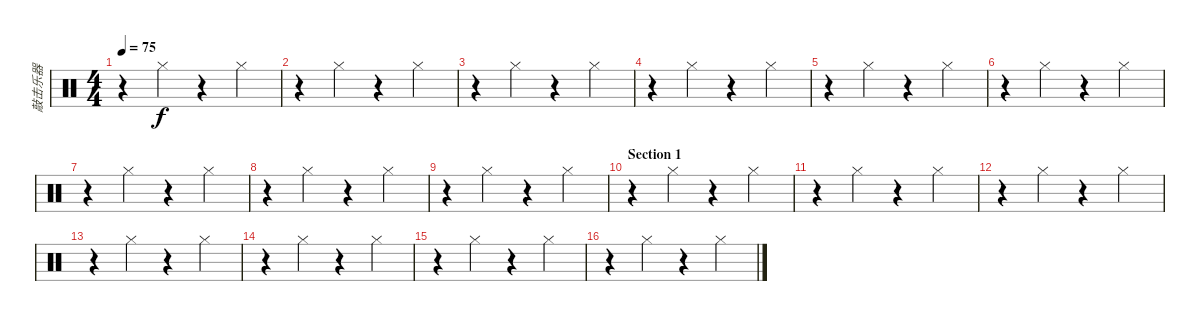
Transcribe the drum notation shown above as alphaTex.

\track ("敲击乐器" "敲击乐器") {instrument percussion}
\staff {score}
\articulation defaults
\ts (4 4)
\tempo 75
\clef neutral
\ks c
r.4{dy f} "Hi-Hat (closed)".4 r.4 "Hi-Hat (closed)".4 |
r.4 "Hi-Hat (closed)".4 r.4 "Hi-Hat (closed)".4 |
r.4 "Hi-Hat (closed)".4 r.4 "Hi-Hat (closed)".4 |
r.4 "Hi-Hat (closed)".4 r.4 "Hi-Hat (closed)".4 |
r.4 "Hi-Hat (closed)".4 r.4 "Hi-Hat (closed)".4 |
r.4 "Hi-Hat (closed)".4 r.4 "Hi-Hat (closed)".4 |
r.4 "Hi-Hat (closed)".4 r.4 "Hi-Hat (closed)".4 |
r.4 "Hi-Hat (closed)".4 r.4 "Hi-Hat (closed)".4 |
r.4 "Hi-Hat (closed)".4 r.4 "Hi-Hat (closed)".4 |
\section ("" "Section 1")
r.4 "Hi-Hat (closed)".4 r.4 "Hi-Hat (closed)".4 |
r.4 "Hi-Hat (closed)".4 r.4 "Hi-Hat (closed)".4 |
r.4 "Hi-Hat (closed)".4 r.4 "Hi-Hat (closed)".4 |
r.4 "Hi-Hat (closed)".4 r.4 "Hi-Hat (closed)".4 |
r.4 "Hi-Hat (closed)".4 r.4 "Hi-Hat (closed)".4 |
r.4 "Hi-Hat (closed)".4 r.4 "Hi-Hat (closed)".4 |
r.4 "Hi-Hat (closed)".4 r.4 "Hi-Hat (closed)".4
